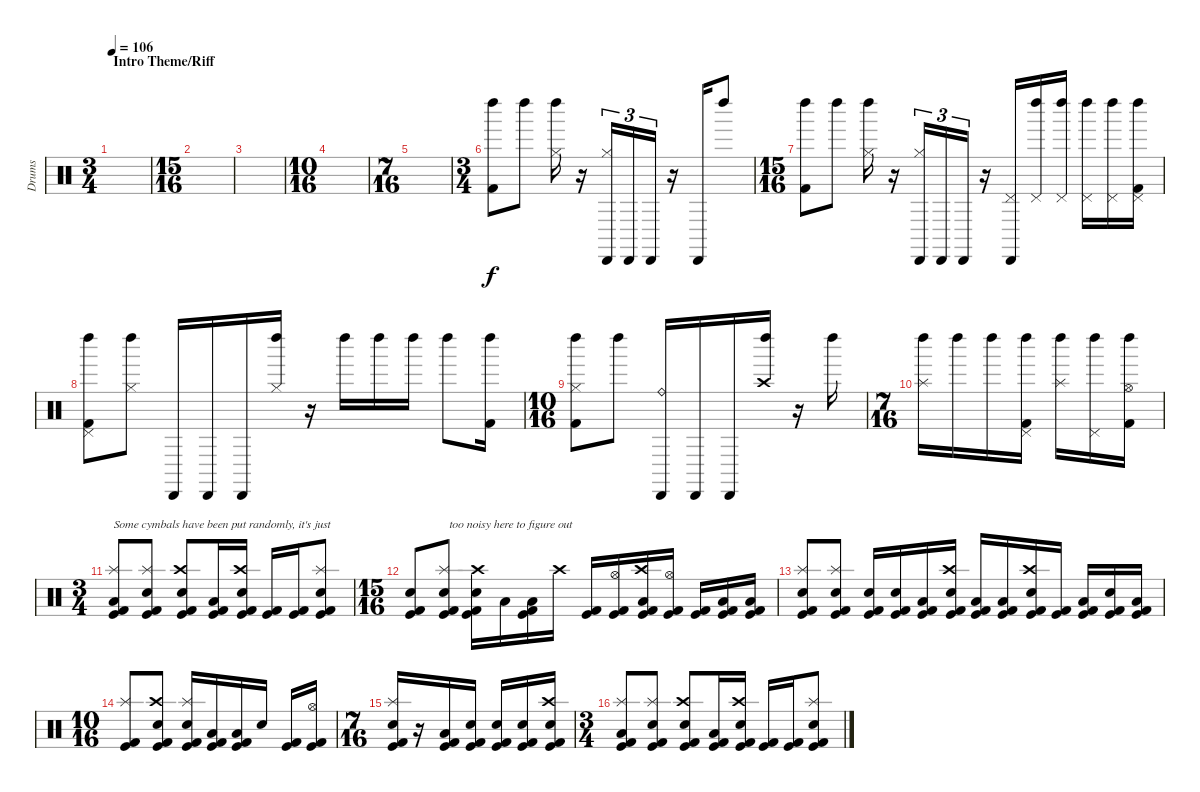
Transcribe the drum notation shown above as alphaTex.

\track ("Drums" "Drums") {instrument percussion}
\staff {score}
\articulation defaults
\ts (3 4)
\section ("" "Intro Theme/Riff")
\tempo 106
\clef neutral
\ks c
|
\ts (15 16)
|
|
\ts (10 16)
|
\ts (7 16)
|
\ts (3 4)
("Left Maraca (hit)" "Kick (hit) 2").8 "Left Maraca (hit)".8 ("Left Maraca (hit)" "Hi-Hat (closed)").16 r.16 ("Cabasa (hit)" "Hi-Hat (closed)").16{tu (3 2)} "Cabasa (hit)".16{tu (3 2)} "Cabasa (hit)".16{tu (3 2)} r.16 "Cabasa (hit)".16 "Left Maraca (hit)".8 |
\ts (15 16)
("Left Maraca (hit)" "Kick (hit) 2").8 "Left Maraca (hit)".8 ("Left Maraca (hit)" "Hi-Hat (closed)").16 r.16 ("Cabasa (hit)" "Hi-Hat (closed)").16{tu (3 2)} "Cabasa (hit)".16{tu (3 2)} "Cabasa (hit)".16{tu (3 2)} r.16 ("Cabasa (hit)" "Pedal Hi-Hat (hit)").16 ("Left Maraca (hit)" "Pedal Hi-Hat (hit)").16 ("Left Maraca (hit)" "Pedal Hi-Hat (hit)").16 ("Left Maraca (hit)" "Pedal Hi-Hat (hit)").16 ("Left Maraca (hit)" "Pedal Hi-Hat (hit)").16 ("Left Maraca (hit)" "Pedal Hi-Hat (hit)" "Kick (hit) 2").16 |
("Left Maraca (hit)" "Pedal Hi-Hat (hit)" "Kick (hit) 2").8 ("Left Maraca (hit)" "Hi-Hat (closed)").8 "Cabasa (hit)".16 "Cabasa (hit)".16 "Cabasa (hit)".16 ("Left Maraca (hit)" "Hi-Hat (closed)").16 r.16 "Left Maraca (hit)".16 "Left Maraca (hit)".16 "Left Maraca (hit)".16 "Left Maraca (hit)".8 ("Left Maraca (hit)" "Kick (hit) 2").16 |
\ts (10 16)
("Left Maraca (hit)" "Hi-Hat (closed)" "Kick (hit) 2").8 "Left Maraca (hit)".8 ("Cabasa (hit)" "Ride (bell)").16 "Cabasa (hit)".16 "Cabasa (hit)".16 ("Left Maraca (hit)" "Crash high (hit)").16 r.16 "Left Maraca (hit)".16 |
\ts (7 16)
("Left Maraca (hit)" "Splash (hit)").16 "Left Maraca (hit)".16 "Left Maraca (hit)".16 ("Left Maraca (hit)" "Pedal Hi-Hat (hit)" "Kick (hit) 2").16 ("Left Maraca (hit)" "Splash (hit)").16 ("Left Maraca (hit)" "Pedal Hi-Hat (hit)").16 ("Left Maraca (hit)" "Hi-Hat (open)" "Kick (hit) 2").16 |
\ts (3 4)
("Splash (hit)" "Low Tom (hit)" "Kick (hit)" "Kick (hit) 2").8{txt "Some cymbals have been put randomly, it's just" volume 12} ("Splash (hit)" "Electric Snare (hit)" "Kick (hit)" "Kick (hit) 2").8 ("Crash high (hit)" "Electric Snare (hit)" "Kick (hit)" "Kick (hit) 2").8 ("Low Tom (hit)" "Kick (hit)" "Kick (hit) 2").16 ("Crash high (hit)" "Electric Snare (hit)" "Kick (hit)" "Kick (hit) 2").16 ("Kick (hit)" "Kick (hit) 2").16 ("Kick (hit)" "Kick (hit) 2").16 ("Splash (hit)" "Electric Snare (hit)" "Kick (hit)" "Kick (hit) 2").8 |
\ts (15 16)
("Electric Snare (hit)" "Kick (hit)" "Kick (hit) 2").8{txt "             too noisy here to figure out"} ("Splash (hit)" "Electric Snare (hit)" "Kick (hit)" "Kick (hit) 2").8 ("Crash high (hit)" "Electric Snare (hit)" "Kick (hit)" "Kick (hit) 2").16 "Low Tom (hit)".16 ("Low Tom (hit)" "Kick (hit)" "Kick (hit) 2").16 "Crash high (hit)".16 ("Kick (hit)" "Kick (hit) 2").16 ("Hi-Hat (open)" "Kick (hit)" "Kick (hit) 2").16 ("Crash high (hit)" "Low Tom (hit)" "Kick (hit)" "Kick (hit) 2").16 ("Hi-Hat (open)" "Kick (hit)" "Kick (hit) 2").16 ("Kick (hit)" "Kick (hit) 2").16 ("Low Tom (hit)" "Kick (hit)" "Kick (hit) 2").16 ("Low Tom (hit)" "Kick (hit)" "Kick (hit) 2").16 |
("Splash (hit)" "Electric Snare (hit)" "Kick (hit)" "Kick (hit) 2").8 ("Splash (hit)" "Electric Snare (hit)" "Kick (hit)" "Kick (hit) 2").8 ("Electric Snare (hit)" "Kick (hit)" "Kick (hit) 2").16 ("Electric Snare (hit)" "Kick (hit)" "Kick (hit) 2").16 ("Low Tom (hit)" "Kick (hit)" "Kick (hit) 2").16 ("Crash high (hit)" "Electric Snare (hit)" "Kick (hit)" "Kick (hit) 2").16 ("Low Tom (hit)" "Kick (hit)" "Kick (hit) 2").16 ("Low Tom (hit)" "Kick (hit)" "Kick (hit) 2").16 ("Crash high (hit)" "Electric Snare (hit)" "Kick (hit)" "Kick (hit) 2").16 ("Kick (hit)" "Kick (hit) 2").16 ("Low Tom (hit)" "Kick (hit)" "Kick (hit) 2").16 ("Electric Snare (hit)" "Kick (hit)" "Kick (hit) 2").16 ("Low Tom (hit)" "Kick (hit)" "Kick (hit) 2").16 |
\ts (10 16)
("Splash (hit)" "Kick (hit)" "Kick (hit) 2").8 ("Crash high (hit)" "Electric Snare (hit)" "Kick (hit)" "Kick (hit) 2").8 ("Splash (hit)" "Electric Snare (hit)" "Kick (hit)" "Kick (hit) 2").16 ("Low Tom (hit)" "Kick (hit)" "Kick (hit) 2").16 ("Low Tom (hit)" "Kick (hit)" "Kick (hit) 2").16 "Electric Snare (hit)".16 ("Kick (hit)" "Kick (hit) 2").16 ("Hi-Hat (open)" "Kick (hit)" "Kick (hit) 2").16 |
\ts (7 16)
("Splash (hit)" "Electric Snare (hit)" "Kick (hit)" "Kick (hit) 2").16 r.16 ("Low Tom (hit)" "Kick (hit)" "Kick (hit) 2").16 ("Electric Snare (hit)" "Kick (hit)" "Kick (hit) 2").16 ("Electric Snare (hit)" "Kick (hit)" "Kick (hit) 2").16 ("Electric Snare (hit)" "Kick (hit)" "Kick (hit) 2").16 ("Crash high (hit)" "Electric Snare (hit)" "Kick (hit)" "Kick (hit) 2").16 |
\ts (3 4)
("Splash (hit)" "Low Tom (hit)" "Kick (hit)" "Kick (hit) 2").8 ("Splash (hit)" "Electric Snare (hit)" "Kick (hit)" "Kick (hit) 2").8 ("Crash high (hit)" "Electric Snare (hit)" "Kick (hit)" "Kick (hit) 2").8 ("Low Tom (hit)" "Kick (hit)" "Kick (hit) 2").16 ("Crash high (hit)" "Electric Snare (hit)" "Kick (hit)" "Kick (hit) 2").16 ("Kick (hit)" "Kick (hit) 2").16 ("Kick (hit)" "Kick (hit) 2").16 ("Splash (hit)" "Electric Snare (hit)" "Kick (hit)" "Kick (hit) 2").8
